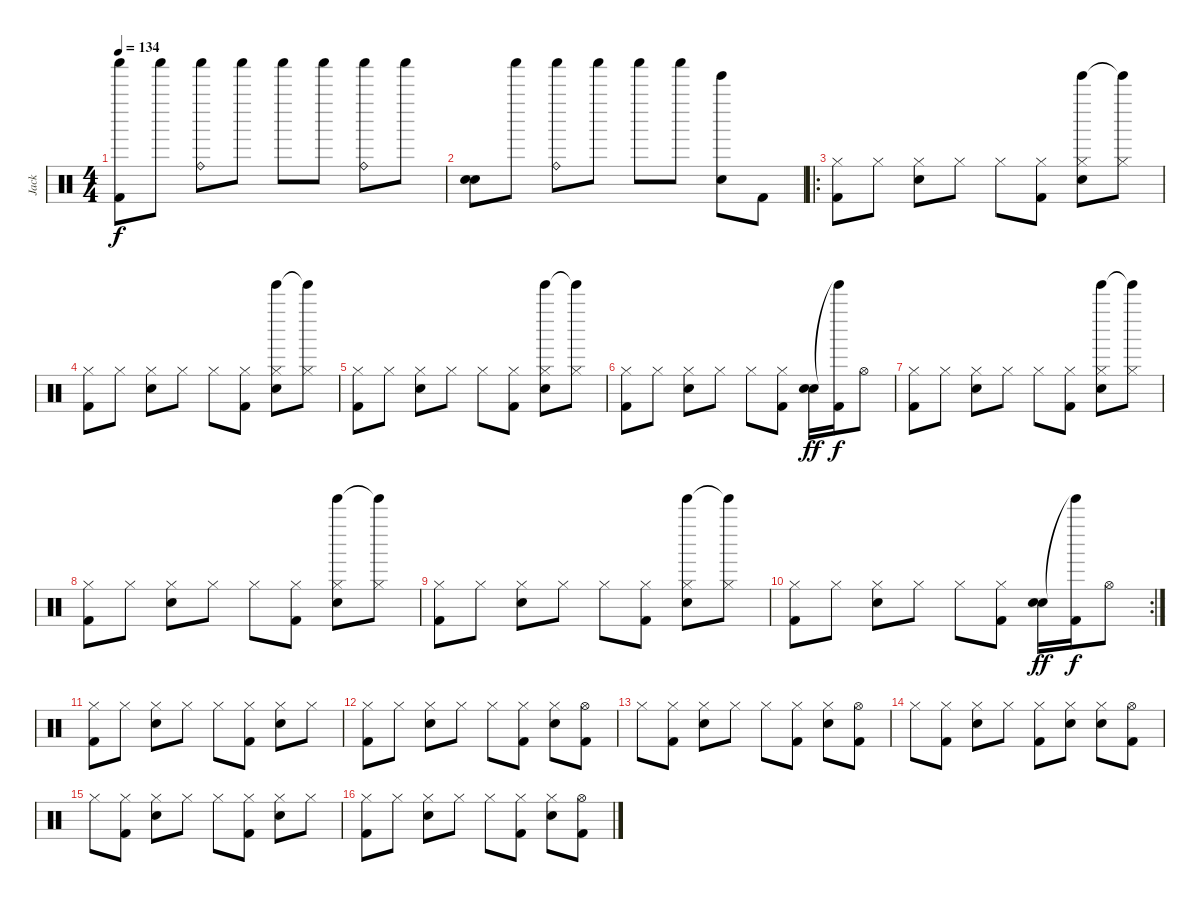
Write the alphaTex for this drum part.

\track ("Jack" "Jack") {instrument percussion}
\staff {score}
\articulation defaults
\ts (4 4)
\tempo 134
\clef neutral
\ks c
("Shaker (hit)" "Kick (hit) 2").8{dy f} "Shaker (hit)".8 ("Ride (bell)" "Shaker (hit)").8 "Shaker (hit)".8 "Shaker (hit)".8 "Shaker (hit)".8 ("Ride (bell)" "Shaker (hit)").8 "Shaker (hit)".8 |
("Hand Clap (hit)" "Electric Snare (hit)").8 "Shaker (hit)".8 ("Ride (bell)" "Shaker (hit)").8 "Shaker (hit)".8 "Shaker (hit)".8 "Shaker (hit)".8 ("Tinkle Bell (hit)" "Electric Snare (hit)").8 "Kick (hit) 2".8 |
\ro
("Hi-Hat (closed)" "Kick (hit) 2").8 "Hi-Hat (closed)".8 ("Hi-Hat (closed)" "Electric Snare (hit)").8 "Hi-Hat (closed)".8 "Hi-Hat (closed)".8 ("Hi-Hat (closed)" "Kick (hit) 2").8 ("Tinkle Bell (hit)" "Hi-Hat (closed)" "Electric Snare (hit)").8 ("Tinkle Bell (hit)"{t} "Hi-Hat (closed)").8 |
("Hi-Hat (closed)" "Kick (hit) 2").8 "Hi-Hat (closed)".8 ("Hi-Hat (closed)" "Electric Snare (hit)").8 "Hi-Hat (closed)".8 "Hi-Hat (closed)".8 ("Hi-Hat (closed)" "Kick (hit) 2").8 ("Tinkle Bell (hit)" "Hi-Hat (closed)" "Electric Snare (hit)").8 ("Tinkle Bell (hit)"{t} "Hi-Hat (closed)").8 |
("Hi-Hat (closed)" "Kick (hit) 2").8 "Hi-Hat (closed)".8 ("Hi-Hat (closed)" "Electric Snare (hit)").8 "Hi-Hat (closed)".8 "Hi-Hat (closed)".8 ("Hi-Hat (closed)" "Kick (hit) 2").8 ("Tinkle Bell (hit)" "Hi-Hat (closed)" "Electric Snare (hit)").8 ("Tinkle Bell (hit)"{t} "Hi-Hat (closed)").8 |
("Hi-Hat (closed)" "Kick (hit) 2").8 "Hi-Hat (closed)".8 ("Hi-Hat (closed)" "Electric Snare (hit)").8 "Hi-Hat (closed)".8 "Hi-Hat (closed)".8 ("Hi-Hat (closed)" "Kick (hit) 2").8 ("Hand Clap (hit)" "Electric Snare (hit)").16{dy ff} ("Tinkle Bell (hit)"{t} "Kick (hit) 2").16{dy f} "Hi-Hat (open)".8 |
("Hi-Hat (closed)" "Kick (hit) 2").8 "Hi-Hat (closed)".8 ("Hi-Hat (closed)" "Electric Snare (hit)").8 "Hi-Hat (closed)".8 "Hi-Hat (closed)".8 ("Hi-Hat (closed)" "Kick (hit) 2").8 ("Tinkle Bell (hit)" "Hi-Hat (closed)" "Electric Snare (hit)").8 ("Tinkle Bell (hit)"{t} "Hi-Hat (closed)").8 |
("Hi-Hat (closed)" "Kick (hit) 2").8 "Hi-Hat (closed)".8 ("Hi-Hat (closed)" "Electric Snare (hit)").8 "Hi-Hat (closed)".8 "Hi-Hat (closed)".8 ("Hi-Hat (closed)" "Kick (hit) 2").8 ("Tinkle Bell (hit)" "Hi-Hat (closed)" "Electric Snare (hit)").8 ("Tinkle Bell (hit)"{t} "Hi-Hat (closed)").8 |
("Hi-Hat (closed)" "Kick (hit) 2").8 "Hi-Hat (closed)".8 ("Hi-Hat (closed)" "Electric Snare (hit)").8 "Hi-Hat (closed)".8 "Hi-Hat (closed)".8 ("Hi-Hat (closed)" "Kick (hit) 2").8 ("Tinkle Bell (hit)" "Hi-Hat (closed)" "Electric Snare (hit)").8 ("Tinkle Bell (hit)"{t} "Hi-Hat (closed)").8 |
\rc 2
("Hi-Hat (closed)" "Kick (hit) 2").8 "Hi-Hat (closed)".8 ("Hi-Hat (closed)" "Electric Snare (hit)").8 "Hi-Hat (closed)".8 "Hi-Hat (closed)".8 ("Hi-Hat (closed)" "Kick (hit) 2").8 ("Hand Clap (hit)" "Electric Snare (hit)").16{dy ff} ("Tinkle Bell (hit)"{t} "Kick (hit) 2").16{dy f} "Hi-Hat (open)".8 |
("Hi-Hat (closed)" "Kick (hit) 2").8 "Hi-Hat (closed)".8 ("Hi-Hat (closed)" "Electric Snare (hit)").8 "Hi-Hat (closed)".8 "Hi-Hat (closed)".8 ("Hi-Hat (closed)" "Kick (hit) 2").8 ("Hi-Hat (closed)" "Electric Snare (hit)").8 "Hi-Hat (closed)".8 |
("Hi-Hat (closed)" "Kick (hit) 2").8 "Hi-Hat (closed)".8 ("Hi-Hat (closed)" "Electric Snare (hit)").8 "Hi-Hat (closed)".8 "Hi-Hat (closed)".8 ("Hi-Hat (closed)" "Kick (hit) 2").8 ("Hi-Hat (closed)" "Electric Snare (hit)").8 ("Hi-Hat (open)" "Kick (hit) 2").8 |
"Hi-Hat (closed)".8 ("Hi-Hat (closed)" "Kick (hit) 2").8 ("Hi-Hat (closed)" "Electric Snare (hit)").8 "Hi-Hat (closed)".8 "Hi-Hat (closed)".8 ("Hi-Hat (closed)" "Kick (hit) 2").8 ("Hi-Hat (closed)" "Electric Snare (hit)").8 ("Hi-Hat (open)" "Kick (hit) 2").8 |
"Hi-Hat (closed)".8 ("Hi-Hat (closed)" "Kick (hit) 2").8 ("Hi-Hat (closed)" "Electric Snare (hit)").8 "Hi-Hat (closed)".8 ("Hi-Hat (closed)" "Kick (hit) 2").8 ("Hi-Hat (closed)" "Electric Snare (hit)").8 ("Hi-Hat (closed)" "Electric Snare (hit)").8 ("Hi-Hat (open)" "Kick (hit) 2").8 |
"Hi-Hat (closed)".8 ("Hi-Hat (closed)" "Kick (hit) 2").8 ("Hi-Hat (closed)" "Electric Snare (hit)").8 "Hi-Hat (closed)".8 "Hi-Hat (closed)".8 ("Hi-Hat (closed)" "Kick (hit) 2").8 ("Hi-Hat (closed)" "Electric Snare (hit)").8 "Hi-Hat (closed)".8 |
("Hi-Hat (closed)" "Kick (hit) 2").8 "Hi-Hat (closed)".8 ("Hi-Hat (closed)" "Electric Snare (hit)").8 "Hi-Hat (closed)".8 "Hi-Hat (closed)".8 ("Hi-Hat (closed)" "Kick (hit) 2").8 ("Hi-Hat (closed)" "Electric Snare (hit)").8 ("Hi-Hat (open)" "Kick (hit) 2").8
